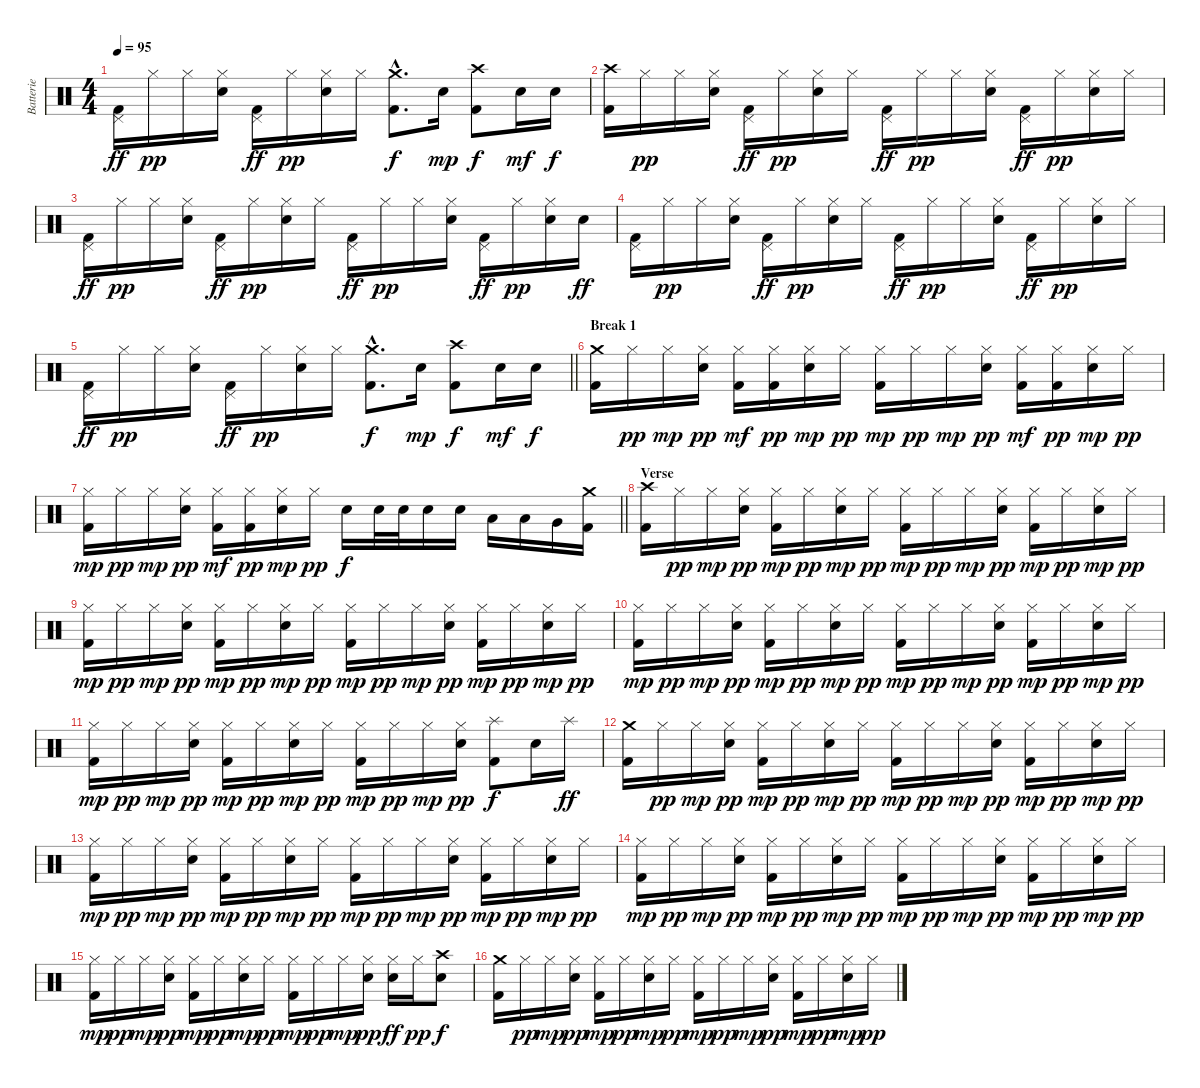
\track ("Batterie" "Batterie") {instrument percussion}
\staff {score}
\articulation defaults
\ts (4 4)
\tempo 95
\clef neutral
\ks c
("Pedal Hi-Hat (hit)" "Kick (hit) 2").16{dy ff} "Hi-Hat (closed)".16{dy pp} "Hi-Hat (closed)".16 ("Hi-Hat (closed)" "Electric Snare (hit)").16 ("Pedal Hi-Hat (hit)" "Kick (hit) 2").16{dy ff} "Hi-Hat (closed)".16{dy pp} ("Hi-Hat (closed)" "Electric Snare (hit)").16 "Hi-Hat (closed)".16 ("Crash medium (hit)"{hac} "Kick (hit) 2"{hac}).8{d dy f} "Electric Snare (hit)".16{dy mp} ("Crash high (hit)" "Kick (hit) 2").8{dy f} "Electric Snare (hit)".16{dy mf} "Electric Snare (hit)".16{dy f} |
("Crash high (hit)" "Kick (hit) 2").16 "Hi-Hat (closed)".16{dy pp} "Hi-Hat (closed)".16 ("Hi-Hat (closed)" "Electric Snare (hit)").16 ("Pedal Hi-Hat (hit)" "Kick (hit) 2").16{dy ff} "Hi-Hat (closed)".16{dy pp} ("Hi-Hat (closed)" "Electric Snare (hit)").16 "Hi-Hat (closed)".16 ("Pedal Hi-Hat (hit)" "Kick (hit) 2").16{dy ff} "Hi-Hat (closed)".16{dy pp} "Hi-Hat (closed)".16 ("Hi-Hat (closed)" "Electric Snare (hit)").16 ("Pedal Hi-Hat (hit)" "Kick (hit) 2").16{dy ff} "Hi-Hat (closed)".16{dy pp} ("Hi-Hat (closed)" "Electric Snare (hit)").16 "Hi-Hat (closed)".16 |
("Pedal Hi-Hat (hit)" "Kick (hit) 2").16{dy ff} "Hi-Hat (closed)".16{dy pp} "Hi-Hat (closed)".16 ("Hi-Hat (closed)" "Electric Snare (hit)").16 ("Pedal Hi-Hat (hit)" "Kick (hit) 2").16{dy ff} "Hi-Hat (closed)".16{dy pp} ("Hi-Hat (closed)" "Electric Snare (hit)").16 "Hi-Hat (closed)".16 ("Pedal Hi-Hat (hit)" "Kick (hit) 2").16{dy ff} "Hi-Hat (closed)".16{dy pp} "Hi-Hat (closed)".16 ("Hi-Hat (closed)" "Electric Snare (hit)").16 ("Pedal Hi-Hat (hit)" "Kick (hit) 2").16{dy ff} "Hi-Hat (closed)".16{dy pp} ("Hi-Hat (closed)" "Electric Snare (hit)").16 "Electric Snare (hit)".16{dy ff} |
("Pedal Hi-Hat (hit)" "Kick (hit) 2").16 "Hi-Hat (closed)".16{dy pp} "Hi-Hat (closed)".16 ("Hi-Hat (closed)" "Electric Snare (hit)").16 ("Pedal Hi-Hat (hit)" "Kick (hit) 2").16{dy ff} "Hi-Hat (closed)".16{dy pp} ("Hi-Hat (closed)" "Electric Snare (hit)").16 "Hi-Hat (closed)".16 ("Pedal Hi-Hat (hit)" "Kick (hit) 2").16{dy ff} "Hi-Hat (closed)".16{dy pp} "Hi-Hat (closed)".16 ("Hi-Hat (closed)" "Electric Snare (hit)").16 ("Pedal Hi-Hat (hit)" "Kick (hit) 2").16{dy ff} "Hi-Hat (closed)".16{dy pp} ("Hi-Hat (closed)" "Electric Snare (hit)").16 "Hi-Hat (closed)".16 |
\barLineRight lightlight
("Pedal Hi-Hat (hit)" "Kick (hit) 2").16{dy ff} "Hi-Hat (closed)".16{dy pp} "Hi-Hat (closed)".16 ("Hi-Hat (closed)" "Electric Snare (hit)").16 ("Pedal Hi-Hat (hit)" "Kick (hit) 2").16{dy ff} "Hi-Hat (closed)".16{dy pp} ("Hi-Hat (closed)" "Electric Snare (hit)").16 "Hi-Hat (closed)".16 ("Crash medium (hit)"{hac} "Kick (hit) 2"{hac}).8{d dy f} "Electric Snare (hit)".16{dy mp} ("Crash high (hit)" "Kick (hit) 2").8{dy f} "Electric Snare (hit)".16{dy mf} "Electric Snare (hit)".16{dy f} |
\section ("" "Break 1")
("Crash medium (hit)" "Kick (hit) 2").16 "Hi-Hat (closed)".16{dy pp} "Hi-Hat (closed)".16{dy mp} ("Hi-Hat (closed)" "Electric Snare (hit)").16{dy pp} ("Hi-Hat (closed)" "Kick (hit) 2").16{dy mf} ("Hi-Hat (closed)" "Kick (hit) 2").16{dy pp} ("Hi-Hat (closed)" "Electric Snare (hit)").16{dy mp} "Hi-Hat (closed)".16{dy pp} ("Hi-Hat (closed)" "Kick (hit) 2").16{dy mp} "Hi-Hat (closed)".16{dy pp} "Hi-Hat (closed)".16{dy mp} ("Hi-Hat (closed)" "Electric Snare (hit)").16{dy pp} ("Hi-Hat (closed)" "Kick (hit) 2").16{dy mf} ("Hi-Hat (closed)" "Kick (hit) 2").16{dy pp} ("Hi-Hat (closed)" "Electric Snare (hit)").16{dy mp} "Hi-Hat (closed)".16{dy pp} |
\barLineRight lightlight
("Hi-Hat (closed)" "Kick (hit) 2").16{dy mp} "Hi-Hat (closed)".16{dy pp} "Hi-Hat (closed)".16{dy mp} ("Hi-Hat (closed)" "Electric Snare (hit)").16{dy pp} ("Hi-Hat (closed)" "Kick (hit) 2").16{dy mf} ("Hi-Hat (closed)" "Kick (hit) 2").16{dy pp} ("Hi-Hat (closed)" "Electric Snare (hit)").16{dy mp} "Hi-Hat (closed)".16{dy pp} "Electric Snare (hit)".16{dy f} "Electric Snare (hit)".32 "Electric Snare (hit)".32 "Electric Snare (hit)".16 "Electric Snare (hit)".16 "Low Tom (hit)".16 "Low Tom (hit)".16 "Very Low Tom (hit)".16 ("Crash medium (hit)" "Kick (hit) 2").16 |
\section ("" "Verse")
("Crash high (hit)" "Kick (hit) 2").16 "Hi-Hat (closed)".16{dy pp} "Hi-Hat (closed)".16{dy mp} ("Hi-Hat (closed)" "Electric Snare (hit)").16{dy pp} ("Hi-Hat (closed)" "Kick (hit) 2").16{dy mp} "Hi-Hat (closed)".16{dy pp} ("Hi-Hat (closed)" "Electric Snare (hit)").16{dy mp} "Hi-Hat (closed)".16{dy pp} ("Hi-Hat (closed)" "Kick (hit) 2").16{dy mp} "Hi-Hat (closed)".16{dy pp} "Hi-Hat (closed)".16{dy mp} ("Hi-Hat (closed)" "Electric Snare (hit)").16{dy pp} ("Hi-Hat (closed)" "Kick (hit) 2").16{dy mp} "Hi-Hat (closed)".16{dy pp} ("Hi-Hat (closed)" "Electric Snare (hit)").16{dy mp} "Hi-Hat (closed)".16{dy pp} |
("Hi-Hat (closed)" "Kick (hit) 2").16{dy mp} "Hi-Hat (closed)".16{dy pp} "Hi-Hat (closed)".16{dy mp} ("Hi-Hat (closed)" "Electric Snare (hit)").16{dy pp} ("Hi-Hat (closed)" "Kick (hit) 2").16{dy mp} "Hi-Hat (closed)".16{dy pp} ("Hi-Hat (closed)" "Electric Snare (hit)").16{dy mp} "Hi-Hat (closed)".16{dy pp} ("Hi-Hat (closed)" "Kick (hit) 2").16{dy mp} "Hi-Hat (closed)".16{dy pp} "Hi-Hat (closed)".16{dy mp} ("Hi-Hat (closed)" "Electric Snare (hit)").16{dy pp} ("Hi-Hat (closed)" "Kick (hit) 2").16{dy mp} "Hi-Hat (closed)".16{dy pp} ("Hi-Hat (closed)" "Electric Snare (hit)").16{dy mp} "Hi-Hat (closed)".16{dy pp} |
("Hi-Hat (closed)" "Kick (hit) 2").16{dy mp} "Hi-Hat (closed)".16{dy pp} "Hi-Hat (closed)".16{dy mp} ("Hi-Hat (closed)" "Electric Snare (hit)").16{dy pp} ("Hi-Hat (closed)" "Kick (hit) 2").16{dy mp} "Hi-Hat (closed)".16{dy pp} ("Hi-Hat (closed)" "Electric Snare (hit)").16{dy mp} "Hi-Hat (closed)".16{dy pp} ("Hi-Hat (closed)" "Kick (hit) 2").16{dy mp} "Hi-Hat (closed)".16{dy pp} "Hi-Hat (closed)".16{dy mp} ("Hi-Hat (closed)" "Electric Snare (hit)").16{dy pp} ("Hi-Hat (closed)" "Kick (hit) 2").16{dy mp} "Hi-Hat (closed)".16{dy pp} ("Hi-Hat (closed)" "Electric Snare (hit)").16{dy mp} "Hi-Hat (closed)".16{dy pp} |
("Hi-Hat (closed)" "Kick (hit) 2").16{dy mp} "Hi-Hat (closed)".16{dy pp} "Hi-Hat (closed)".16{dy mp} ("Hi-Hat (closed)" "Electric Snare (hit)").16{dy pp} ("Hi-Hat (closed)" "Kick (hit) 2").16{dy mp} "Hi-Hat (closed)".16{dy pp} ("Hi-Hat (closed)" "Electric Snare (hit)").16{dy mp} "Hi-Hat (closed)".16{dy pp} ("Hi-Hat (closed)" "Kick (hit) 2").16{dy mp} "Hi-Hat (closed)".16{dy pp} "Hi-Hat (closed)".16{dy mp} ("Hi-Hat (closed)" "Electric Snare (hit)").16{dy pp} ("Splash (hit)" "Kick (hit) 2").8{dy f} "Electric Snare (hit)".16 "Splash (hit)".16{dy ff} |
("Crash medium (hit)" "Kick (hit) 2").16 "Hi-Hat (closed)".16{dy pp} "Hi-Hat (closed)".16{dy mp} ("Hi-Hat (closed)" "Electric Snare (hit)").16{dy pp} ("Hi-Hat (closed)" "Kick (hit) 2").16{dy mp} "Hi-Hat (closed)".16{dy pp} ("Hi-Hat (closed)" "Electric Snare (hit)").16{dy mp} "Hi-Hat (closed)".16{dy pp} ("Hi-Hat (closed)" "Kick (hit) 2").16{dy mp} "Hi-Hat (closed)".16{dy pp} "Hi-Hat (closed)".16{dy mp} ("Hi-Hat (closed)" "Electric Snare (hit)").16{dy pp} ("Hi-Hat (closed)" "Kick (hit) 2").16{dy mp} "Hi-Hat (closed)".16{dy pp} ("Hi-Hat (closed)" "Electric Snare (hit)").16{dy mp} "Hi-Hat (closed)".16{dy pp} |
("Hi-Hat (closed)" "Kick (hit) 2").16{dy mp} "Hi-Hat (closed)".16{dy pp} "Hi-Hat (closed)".16{dy mp} ("Hi-Hat (closed)" "Electric Snare (hit)").16{dy pp} ("Hi-Hat (closed)" "Kick (hit) 2").16{dy mp} "Hi-Hat (closed)".16{dy pp} ("Hi-Hat (closed)" "Electric Snare (hit)").16{dy mp} "Hi-Hat (closed)".16{dy pp} ("Hi-Hat (closed)" "Kick (hit) 2").16{dy mp} "Hi-Hat (closed)".16{dy pp} "Hi-Hat (closed)".16{dy mp} ("Hi-Hat (closed)" "Electric Snare (hit)").16{dy pp} ("Hi-Hat (closed)" "Kick (hit) 2").16{dy mp} "Hi-Hat (closed)".16{dy pp} ("Hi-Hat (closed)" "Electric Snare (hit)").16{dy mp} "Hi-Hat (closed)".16{dy pp} |
("Hi-Hat (closed)" "Kick (hit) 2").16{dy mp} "Hi-Hat (closed)".16{dy pp} "Hi-Hat (closed)".16{dy mp} ("Hi-Hat (closed)" "Electric Snare (hit)").16{dy pp} ("Hi-Hat (closed)" "Kick (hit) 2").16{dy mp} "Hi-Hat (closed)".16{dy pp} ("Hi-Hat (closed)" "Electric Snare (hit)").16{dy mp} "Hi-Hat (closed)".16{dy pp} ("Hi-Hat (closed)" "Kick (hit) 2").16{dy mp} "Hi-Hat (closed)".16{dy pp} "Hi-Hat (closed)".16{dy mp} ("Hi-Hat (closed)" "Electric Snare (hit)").16{dy pp} ("Hi-Hat (closed)" "Kick (hit) 2").16{dy mp} "Hi-Hat (closed)".16{dy pp} ("Hi-Hat (closed)" "Electric Snare (hit)").16{dy mp} "Hi-Hat (closed)".16{dy pp} |
("Hi-Hat (closed)" "Kick (hit) 2").16{dy mp} "Hi-Hat (closed)".16{dy pp} "Hi-Hat (closed)".16{dy mp} ("Hi-Hat (closed)" "Electric Snare (hit)").16{dy pp} ("Hi-Hat (closed)" "Kick (hit) 2").16{dy mp} "Hi-Hat (closed)".16{dy pp} ("Hi-Hat (closed)" "Electric Snare (hit)").16{dy mp} "Hi-Hat (closed)".16{dy pp} ("Hi-Hat (closed)" "Kick (hit) 2").16{dy mp} "Hi-Hat (closed)".16{dy pp} "Hi-Hat (closed)".16{dy mp} ("Hi-Hat (closed)" "Electric Snare (hit)").16{dy pp} ("Hi-Hat (closed)" "Electric Snare (hit)").16{dy ff} "Hi-Hat (closed)".16{dy pp} ("Crash high (hit)" "Electric Snare (hit)").8{dy f} |
("Crash medium (hit)" "Kick (hit) 2").16 "Hi-Hat (closed)".16{dy pp} "Hi-Hat (closed)".16{dy mp} ("Hi-Hat (closed)" "Electric Snare (hit)").16{dy pp} ("Hi-Hat (closed)" "Kick (hit) 2").16{dy mp} "Hi-Hat (closed)".16{dy pp} ("Hi-Hat (closed)" "Electric Snare (hit)").16{dy mp} "Hi-Hat (closed)".16{dy pp} ("Hi-Hat (closed)" "Kick (hit) 2").16{dy mp} "Hi-Hat (closed)".16{dy pp} "Hi-Hat (closed)".16{dy mp} ("Hi-Hat (closed)" "Electric Snare (hit)").16{dy pp} ("Hi-Hat (closed)" "Kick (hit) 2").16{dy mp} "Hi-Hat (closed)".16{dy pp} ("Hi-Hat (closed)" "Electric Snare (hit)").16{dy mp} "Hi-Hat (closed)".16{dy pp}
